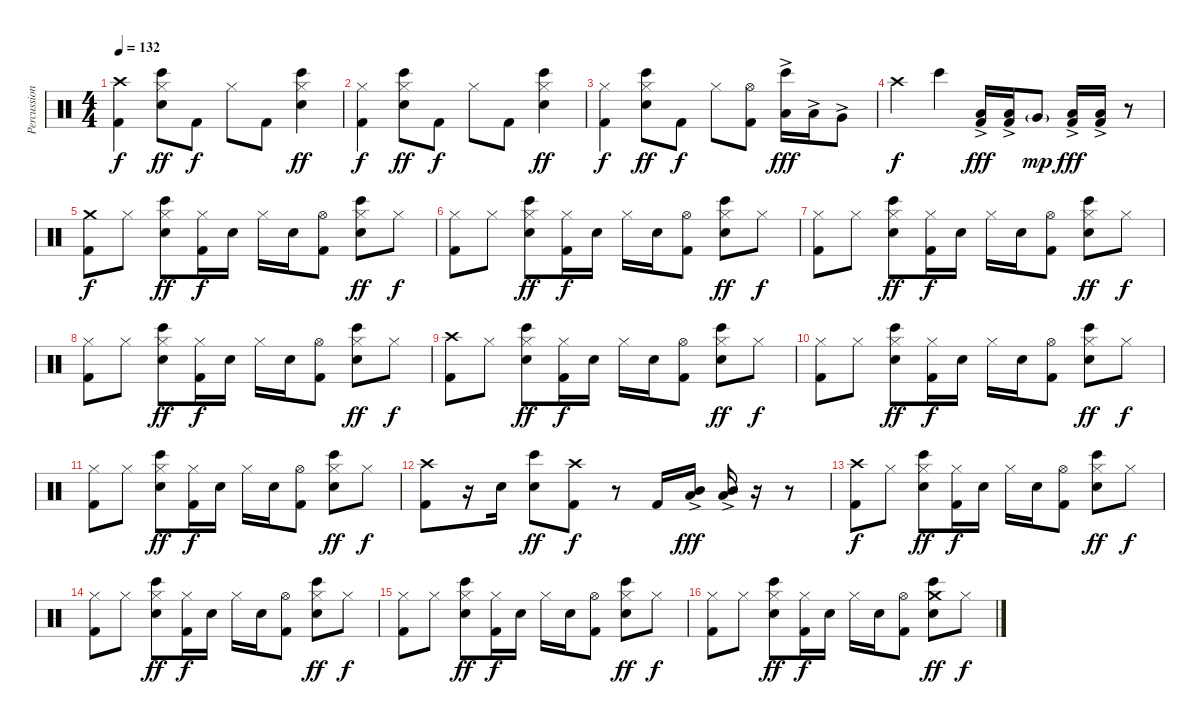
\track ("Percussion" "Percussion") {instrument percussion}
\staff {score}
\articulation defaults
\ts (4 4)
\tempo 132
\clef neutral
\ks c
("Crash high (hit)" "Kick (hit) 2").4{dy f} ("Hi-Hat (closed)" "Bongo High (hit)" "Snare (hit) 2").8{dy ff} "Kick (hit) 2".8{dy f} "Hi-Hat (closed)".8 "Kick (hit) 2".8 ("Hi-Hat (closed)" "Bongo High (hit)" "Snare (hit) 2").4{dy ff} |
("Hi-Hat (closed)" "Kick (hit) 2").4{dy f} ("Hi-Hat (closed)" "Bongo High (hit)" "Snare (hit) 2").8{dy ff} "Kick (hit) 2".8{dy f} "Hi-Hat (closed)".8 "Kick (hit) 2".8 ("Hi-Hat (closed)" "Bongo High (hit)" "Snare (hit) 2").4{dy ff} |
("Hi-Hat (closed)" "Kick (hit) 2").4{dy f} ("Hi-Hat (closed)" "Bongo High (hit)" "Snare (hit) 2").8{dy ff} "Kick (hit) 2".8{dy f} "Hi-Hat (closed)".8 ("Hi-Hat (open)" "Kick (hit) 2").8 ("Bongo High (hit)" "Low Tom (hit)"{ac}).16{dy fff} "Low Tom (hit)"{ac}.16 "Very Low Tom (hit)"{ac}.8 |
"Crash high (hit)".4{dy f} "Bongo High (hit)".4 ("Low Tom (hit)"{ac} "Kick (hit) 2").16{dy fff} ("Low Tom (hit)"{ac} "Kick (hit) 2").16 "Very Low Tom (hit)"{g}.8{dy mp} ("Low Tom (hit)"{ac} "Kick (hit) 2").16{dy fff} ("Low Tom (hit)"{ac} "Kick (hit) 2").16 r.8 |
("Crash medium (hit)" "Kick (hit) 2").8{dy f} "Hi-Hat (closed)".8 ("Hi-Hat (closed)" "Bongo High (hit)" "Snare (hit) 2").8{dy ff} ("Hi-Hat (closed)" "Kick (hit) 2").16{dy f} "Snare (hit) 2".16 "Hi-Hat (closed)".16 "Snare (hit) 2".16 ("Hi-Hat (open)" "Kick (hit) 2").8 ("Hi-Hat (closed)" "Bongo High (hit)" "Snare (hit) 2").8{dy ff} "Hi-Hat (closed)".8{dy f} |
("Hi-Hat (closed)" "Kick (hit) 2").8 "Hi-Hat (closed)".8 ("Hi-Hat (closed)" "Bongo High (hit)" "Snare (hit) 2").8{dy ff} ("Hi-Hat (closed)" "Kick (hit) 2").16{dy f} "Snare (hit) 2".16 "Hi-Hat (closed)".16 "Snare (hit) 2".16 ("Hi-Hat (open)" "Kick (hit) 2").8 ("Hi-Hat (closed)" "Bongo High (hit)" "Snare (hit) 2").8{dy ff} "Hi-Hat (closed)".8{dy f} |
("Hi-Hat (closed)" "Kick (hit) 2").8 "Hi-Hat (closed)".8 ("Hi-Hat (closed)" "Bongo High (hit)" "Snare (hit) 2").8{dy ff} ("Hi-Hat (closed)" "Kick (hit) 2").16{dy f} "Snare (hit) 2".16 "Hi-Hat (closed)".16 "Snare (hit) 2".16 ("Hi-Hat (open)" "Kick (hit) 2").8 ("Hi-Hat (closed)" "Bongo High (hit)" "Snare (hit) 2").8{dy ff} "Hi-Hat (closed)".8{dy f} |
("Hi-Hat (closed)" "Kick (hit) 2").8 "Hi-Hat (closed)".8 ("Hi-Hat (closed)" "Bongo High (hit)" "Snare (hit) 2").8{dy ff} ("Hi-Hat (closed)" "Kick (hit) 2").16{dy f} "Snare (hit) 2".16 "Hi-Hat (closed)".16 "Snare (hit) 2".16 ("Hi-Hat (open)" "Kick (hit) 2").8 ("Hi-Hat (closed)" "Bongo High (hit)" "Snare (hit) 2").8{dy ff} "Hi-Hat (closed)".8{dy f} |
("Crash high (hit)" "Kick (hit) 2").8 "Hi-Hat (closed)".8 ("Hi-Hat (closed)" "Bongo High (hit)" "Snare (hit) 2").8{dy ff} ("Hi-Hat (closed)" "Kick (hit) 2").16{dy f} "Snare (hit) 2".16 "Hi-Hat (closed)".16 "Snare (hit) 2".16 ("Hi-Hat (open)" "Kick (hit) 2").8 ("Hi-Hat (closed)" "Bongo High (hit)" "Snare (hit) 2").8{dy ff} "Hi-Hat (closed)".8{dy f} |
("Hi-Hat (closed)" "Kick (hit) 2").8 "Hi-Hat (closed)".8 ("Hi-Hat (closed)" "Bongo High (hit)" "Snare (hit) 2").8{dy ff} ("Hi-Hat (closed)" "Kick (hit) 2").16{dy f} "Snare (hit) 2".16 "Hi-Hat (closed)".16 "Snare (hit) 2".16 ("Hi-Hat (open)" "Kick (hit) 2").8 ("Hi-Hat (closed)" "Bongo High (hit)" "Snare (hit) 2").8{dy ff} "Hi-Hat (closed)".8{dy f} |
("Hi-Hat (closed)" "Kick (hit) 2").8 "Hi-Hat (closed)".8 ("Hi-Hat (closed)" "Bongo High (hit)" "Snare (hit) 2").8{dy ff} ("Hi-Hat (closed)" "Kick (hit) 2").16{dy f} "Snare (hit) 2".16 "Hi-Hat (closed)".16 "Snare (hit) 2".16 ("Hi-Hat (open)" "Kick (hit) 2").8 ("Hi-Hat (closed)" "Bongo High (hit)" "Snare (hit) 2").8{dy ff} "Hi-Hat (closed)".8{dy f} |
("Crash high (hit)" "Kick (hit) 2").8 r.16 "Snare (hit) 2".16 ("Bongo High (hit)" "Snare (hit) 2").8{dy ff} ("Crash high (hit)" "Kick (hit) 2").8{dy f} r.8 "Kick (hit) 2".16 ("Mid Tom (hit)" "Low Tom (hit)"{ac}).16{dy fff} ("Mid Tom (hit)" "Low Tom (hit)"{ac}).16 r.16 r.8 |
("Crash high (hit)" "Kick (hit) 2").8{dy f} "Hi-Hat (closed)".8 ("Hi-Hat (closed)" "Bongo High (hit)" "Snare (hit) 2").8{dy ff} ("Hi-Hat (closed)" "Kick (hit) 2").16{dy f} "Snare (hit) 2".16 "Hi-Hat (closed)".16 "Snare (hit) 2".16 ("Hi-Hat (open)" "Kick (hit) 2").8 ("Hi-Hat (closed)" "Bongo High (hit)" "Snare (hit) 2").8{dy ff} "Hi-Hat (closed)".8{dy f} |
("Hi-Hat (closed)" "Kick (hit) 2").8 "Hi-Hat (closed)".8 ("Hi-Hat (closed)" "Bongo High (hit)" "Snare (hit) 2").8{dy ff} ("Hi-Hat (closed)" "Kick (hit) 2").16{dy f} "Snare (hit) 2".16 "Hi-Hat (closed)".16 "Snare (hit) 2".16 ("Hi-Hat (open)" "Kick (hit) 2").8 ("Hi-Hat (closed)" "Bongo High (hit)" "Snare (hit) 2").8{dy ff} "Hi-Hat (closed)".8{dy f} |
("Hi-Hat (closed)" "Kick (hit) 2").8 "Hi-Hat (closed)".8 ("Hi-Hat (closed)" "Bongo High (hit)" "Snare (hit) 2").8{dy ff} ("Hi-Hat (closed)" "Kick (hit) 2").16{dy f} "Snare (hit) 2".16 "Hi-Hat (closed)".16 "Snare (hit) 2".16 ("Hi-Hat (open)" "Kick (hit) 2").8 ("Hi-Hat (closed)" "Bongo High (hit)" "Snare (hit) 2").8{dy ff} "Hi-Hat (closed)".8{dy f} |
("Hi-Hat (closed)" "Kick (hit) 2").8 "Hi-Hat (closed)".8 ("Hi-Hat (closed)" "Bongo High (hit)" "Snare (hit) 2").8{dy ff} ("Hi-Hat (closed)" "Kick (hit) 2").16{dy f} "Snare (hit) 2".16 "Hi-Hat (closed)".16 "Snare (hit) 2".16 ("Hi-Hat (open)" "Kick (hit) 2").8 ("Crash medium (hit)" "Bongo High (hit)" "Snare (hit) 2").8{dy ff} "Hi-Hat (closed)".8{dy f}
